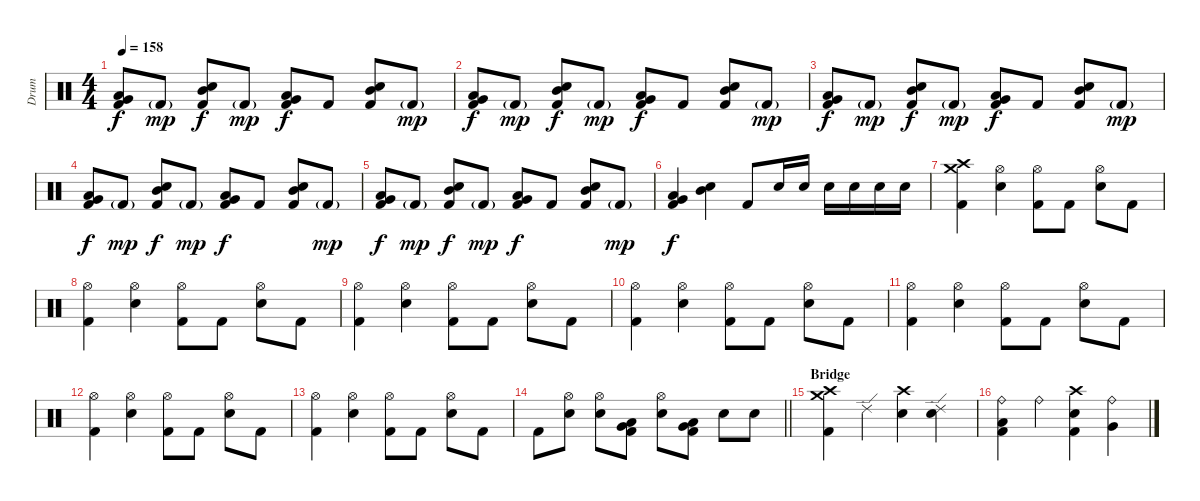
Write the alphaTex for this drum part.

\track ("Drum" "Drum") {instrument percussion}
\staff {score}
\articulation defaults
\ts (4 4)
\tempo 158
\clef neutral
\ks c
("Low Floor Tom (hit)" "Very Low Tom (hit)" "Kick (hit) 2").8{dy f} "Kick (hit) 2"{g}.8{dy mp} ("Mid Tom (hit)" "Electric Snare (hit)" "Kick (hit) 2").8{dy f} "Kick (hit) 2"{g}.8{dy mp} ("Low Floor Tom (hit)" "Very Low Tom (hit)" "Kick (hit) 2").8{dy f} "Kick (hit) 2".8 ("Mid Tom (hit)" "Electric Snare (hit)" "Kick (hit) 2").8 "Kick (hit) 2"{g}.8{dy mp} |
("Low Floor Tom (hit)" "Very Low Tom (hit)" "Kick (hit) 2").8{dy f} "Kick (hit) 2"{g}.8{dy mp} ("Mid Tom (hit)" "Electric Snare (hit)" "Kick (hit) 2").8{dy f} "Kick (hit) 2"{g}.8{dy mp} ("Low Floor Tom (hit)" "Very Low Tom (hit)" "Kick (hit) 2").8{dy f} "Kick (hit) 2".8 ("Mid Tom (hit)" "Electric Snare (hit)" "Kick (hit) 2").8 "Kick (hit) 2"{g}.8{dy mp} |
("Low Floor Tom (hit)" "Very Low Tom (hit)" "Kick (hit) 2").8{dy f} "Kick (hit) 2"{g}.8{dy mp} ("Mid Tom (hit)" "Electric Snare (hit)" "Kick (hit) 2").8{dy f} "Kick (hit) 2"{g}.8{dy mp} ("Low Floor Tom (hit)" "Very Low Tom (hit)" "Kick (hit) 2").8{dy f} "Kick (hit) 2".8 ("Mid Tom (hit)" "Electric Snare (hit)" "Kick (hit) 2").8 "Kick (hit) 2"{g}.8{dy mp} |
("Low Floor Tom (hit)" "Very Low Tom (hit)" "Kick (hit) 2").8{dy f} "Kick (hit) 2"{g}.8{dy mp} ("Mid Tom (hit)" "Electric Snare (hit)" "Kick (hit) 2").8{dy f} "Kick (hit) 2"{g}.8{dy mp} ("Low Floor Tom (hit)" "Very Low Tom (hit)" "Kick (hit) 2").8{dy f} "Kick (hit) 2".8 ("Mid Tom (hit)" "Electric Snare (hit)" "Kick (hit) 2").8 "Kick (hit) 2"{g}.8{dy mp} |
("Low Floor Tom (hit)" "Very Low Tom (hit)" "Kick (hit) 2").8{dy f} "Kick (hit) 2"{g}.8{dy mp} ("Mid Tom (hit)" "Electric Snare (hit)" "Kick (hit) 2").8{dy f} "Kick (hit) 2"{g}.8{dy mp} ("Low Floor Tom (hit)" "Very Low Tom (hit)" "Kick (hit) 2").8{dy f} "Kick (hit) 2".8 ("Mid Tom (hit)" "Electric Snare (hit)" "Kick (hit) 2").8 "Kick (hit) 2"{g}.8{dy mp} |
("Low Floor Tom (hit)" "Very Low Tom (hit)" "Kick (hit) 2").4{dy f} ("Mid Tom (hit)" "Electric Snare (hit)").4 "Kick (hit) 2".8 "Electric Snare (hit)".16 "Electric Snare (hit)".16 "Electric Snare (hit)".16 "Electric Snare (hit)".16 "Electric Snare (hit)".16 "Electric Snare (hit)".16 |
("Crash high (hit)" "Crash medium (hit)" "Kick (hit) 2").4 ("Hi-Hat (open)" "Electric Snare (hit)").4 ("Hi-Hat (open)" "Kick (hit) 2").8 "Kick (hit) 2".8 ("Hi-Hat (open)" "Electric Snare (hit)").8 "Kick (hit) 2".8 |
("Hi-Hat (open)" "Kick (hit) 2").4 ("Hi-Hat (open)" "Electric Snare (hit)").4 ("Hi-Hat (open)" "Kick (hit) 2").8 "Kick (hit) 2".8 ("Hi-Hat (open)" "Electric Snare (hit)").8 "Kick (hit) 2".8 |
("Hi-Hat (open)" "Kick (hit) 2").4 ("Hi-Hat (open)" "Electric Snare (hit)").4 ("Hi-Hat (open)" "Kick (hit) 2").8 "Kick (hit) 2".8 ("Hi-Hat (open)" "Electric Snare (hit)").8 "Kick (hit) 2".8 |
("Hi-Hat (open)" "Kick (hit) 2").4 ("Hi-Hat (open)" "Electric Snare (hit)").4 ("Hi-Hat (open)" "Kick (hit) 2").8 "Kick (hit) 2".8 ("Hi-Hat (open)" "Electric Snare (hit)").8 "Kick (hit) 2".8 |
("Hi-Hat (open)" "Kick (hit) 2").4 ("Hi-Hat (open)" "Electric Snare (hit)").4 ("Hi-Hat (open)" "Kick (hit) 2").8 "Kick (hit) 2".8 ("Hi-Hat (open)" "Electric Snare (hit)").8 "Kick (hit) 2".8 |
("Hi-Hat (open)" "Kick (hit) 2").4 ("Hi-Hat (open)" "Electric Snare (hit)").4 ("Hi-Hat (open)" "Kick (hit) 2").8 "Kick (hit) 2".8 ("Hi-Hat (open)" "Electric Snare (hit)").8 "Kick (hit) 2".8 |
("Hi-Hat (open)" "Kick (hit) 2").4 ("Hi-Hat (open)" "Electric Snare (hit)").4 ("Hi-Hat (open)" "Kick (hit) 2").8 "Kick (hit) 2".8 ("Hi-Hat (open)" "Electric Snare (hit)").8 "Kick (hit) 2".8 |
\barLineRight lightlight "Kick (hit) 2".8
("Hi-Hat (open)" "Electric Snare (hit)").8 ("Hi-Hat (open)" "Electric Snare (hit)").8 ("Very Low Tom (hit)" "Low Floor Tom (hit)" "Kick (hit) 2").8 ("Hi-Hat (open)" "Electric Snare (hit)").8 ("Very Low Tom (hit)" "Low Floor Tom (hit)" "Kick (hit) 2").8 "Electric Snare (hit)".8 "Electric Snare (hit)".8 |
\section ("" "Bridge")
("Crash high (hit)" "Crash medium (hit)" "Kick (hit) 2").4 "Ride (edge) 2".4 ("Crash high (hit)" "Electric Snare (hit)").4 ("Ride (edge) 2" "Electric Snare (hit)").4 |
("Ride (bell)" "Low Floor Tom (hit)" "Kick (hit) 2").4 "Ride (bell)".4 ("Crash high (hit)" "Electric Snare (hit)" "Kick (hit) 2").4 ("Ride (bell)" "Very Low Tom (hit)").4
